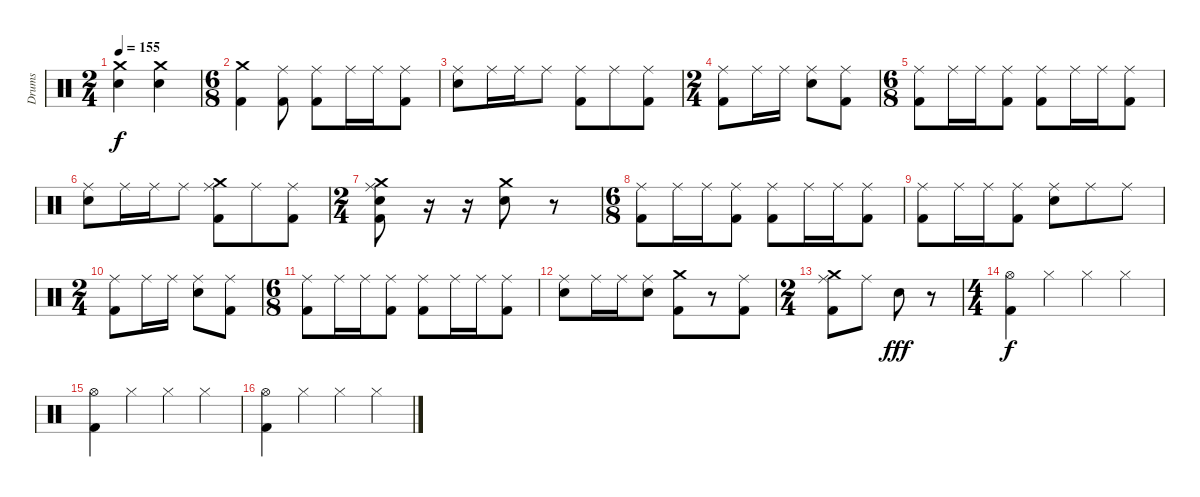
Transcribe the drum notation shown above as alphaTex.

\track ("Drums" "Drums") {instrument percussion}
\staff {score}
\articulation defaults
\ts (2 4)
\tempo 155
\clef neutral
\ks c
("Crash medium (hit)" "Electric Snare (hit)").4{dy f} ("Crash medium (hit)" "Electric Snare (hit)").4 |
\ts (6 8)
("Crash medium (hit)" "Kick (hit) 2").4 ("Ride (middle)" "Kick (hit) 2").8 ("Ride (middle)" "Kick (hit) 2").8 "Ride (middle)".16 "Ride (middle)".16 ("Ride (middle)" "Kick (hit) 2").8 |
("Ride (middle)" "Electric Snare (hit)").8 "Ride (middle)".16 "Ride (middle)".16 "Ride (middle)".8 ("Ride (middle)" "Kick (hit) 2").8 "Ride (middle)".8 ("Ride (middle)" "Kick (hit) 2").8 |
\ts (2 4)
("Ride (middle)" "Kick (hit) 2").8 "Ride (middle)".16 "Ride (middle)".16 ("Ride (middle)" "Electric Snare (hit)").8 ("Ride (middle)" "Kick (hit) 2").8 |
\ts (6 8)
("Ride (middle)" "Kick (hit) 2").8 "Ride (middle)".16 "Ride (middle)".16 ("Ride (middle)" "Kick (hit) 2").8 ("Ride (middle)" "Kick (hit) 2").8 "Ride (middle)".16 "Ride (middle)".16 ("Ride (middle)" "Kick (hit) 2").8 |
("Ride (middle)" "Electric Snare (hit)").8 "Ride (middle)".16 "Ride (middle)".16 "Ride (middle)".8 ("Crash medium (hit)" "Ride (middle)" "Kick (hit) 2").8 "Ride (middle)".8 ("Ride (middle)" "Kick (hit) 2").8 |
\ts (2 4)
("Crash medium (hit)" "Ride (middle)" "Electric Snare (hit)" "Kick (hit) 2").8 r.16 r.16 ("Crash medium (hit)" "Electric Snare (hit)").8 r.8 |
\ts (6 8)
("Ride (middle)" "Kick (hit) 2").8 "Ride (middle)".16 "Ride (middle)".16 ("Ride (middle)" "Kick (hit) 2").8 ("Ride (middle)" "Kick (hit) 2").8 "Ride (middle)".16 "Ride (middle)".16 ("Ride (middle)" "Kick (hit) 2").8 |
("Ride (middle)" "Kick (hit) 2").8 "Ride (middle)".16 "Ride (middle)".16 ("Ride (middle)" "Kick (hit) 2").8 ("Ride (middle)" "Electric Snare (hit)").8 "Ride (middle)".8 "Ride (middle)".8 |
\ts (2 4)
("Ride (middle)" "Kick (hit) 2").8 "Ride (middle)".16 "Ride (middle)".16 ("Ride (middle)" "Electric Snare (hit)").8 ("Ride (middle)" "Kick (hit) 2").8 |
\ts (6 8)
("Ride (middle)" "Kick (hit) 2").8 "Ride (middle)".16 "Ride (middle)".16 ("Ride (middle)" "Kick (hit) 2").8 ("Ride (middle)" "Kick (hit) 2").8 "Ride (middle)".16 "Ride (middle)".16 ("Ride (middle)" "Kick (hit) 2").8 |
("Ride (middle)" "Electric Snare (hit)").8 "Ride (middle)".16 "Ride (middle)".16 ("Ride (middle)" "Electric Snare (hit)").8 ("Crash medium (hit)" "Kick (hit) 2").8 r.8 ("Ride (middle)" "Kick (hit) 2").8 |
\ts (2 4)
("Crash medium (hit)" "Ride (middle)" "Kick (hit) 2").8 "Ride (middle)".8 "Electric Snare (hit)".8{dy fff} r.8 |
\ts (4 4)
("Hi-Hat (open)" "Kick (hit) 2").4{dy f} "Hi-Hat (closed)".4 "Hi-Hat (closed)".4 "Hi-Hat (closed)".4 |
("Hi-Hat (open)" "Kick (hit) 2").4 "Hi-Hat (closed)".4 "Hi-Hat (closed)".4 "Hi-Hat (closed)".4 |
("Hi-Hat (open)" "Kick (hit) 2").4 "Hi-Hat (closed)".4 "Hi-Hat (closed)".4 "Hi-Hat (closed)".4
